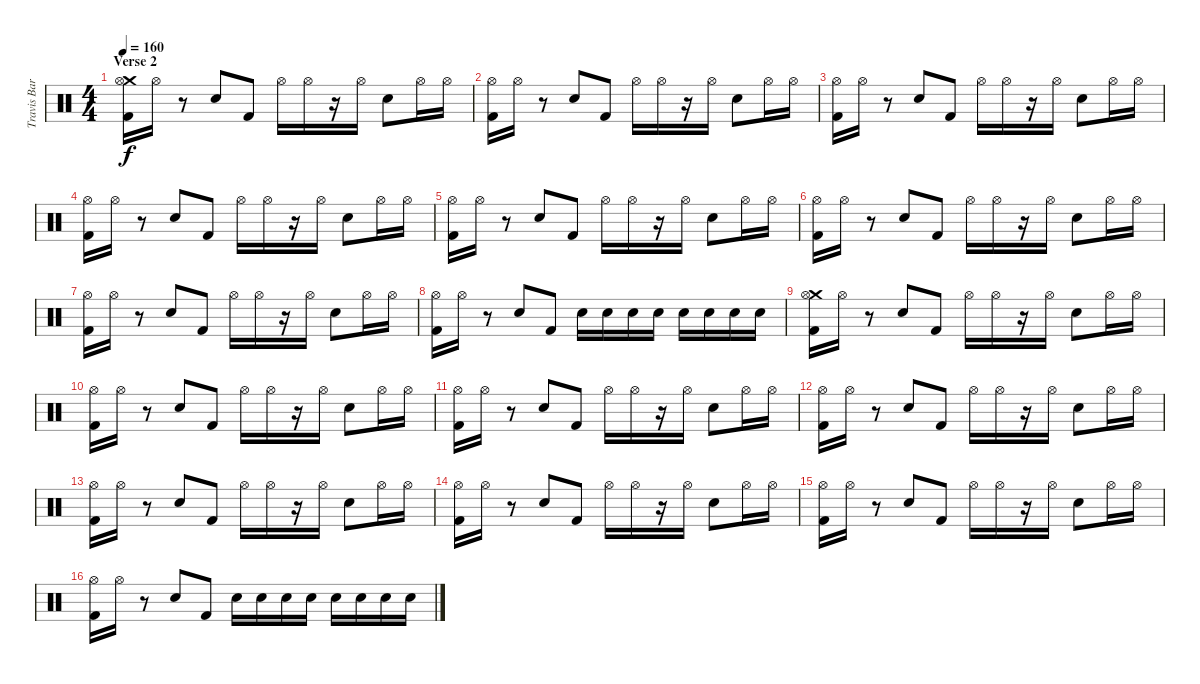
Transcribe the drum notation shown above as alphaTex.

\track ("Travis Barker Drums" "Travis Bar") {instrument percussion}
\staff {score}
\articulation defaults
\ts (4 4)
\section ("" "Verse 2")
\tempo 160
\clef neutral
\ks c
("Crash medium (hit)" "Hi-Hat (open)" "Kick (hit) 2").16{dy f} "Hi-Hat (open)".16 r.8 "Electric Snare (hit)".8 "Kick (hit) 2".8 "Hi-Hat (open)".16 "Hi-Hat (open)".16 r.16 "Hi-Hat (open)".16 "Electric Snare (hit)".8 "Hi-Hat (open)".16 "Hi-Hat (open)".16 |
("Hi-Hat (open)" "Kick (hit) 2").16 "Hi-Hat (open)".16 r.8 "Electric Snare (hit)".8 "Kick (hit) 2".8 "Hi-Hat (open)".16 "Hi-Hat (open)".16 r.16 "Hi-Hat (open)".16 "Electric Snare (hit)".8 "Hi-Hat (open)".16 "Hi-Hat (open)".16 |
("Hi-Hat (open)" "Kick (hit) 2").16 "Hi-Hat (open)".16 r.8 "Electric Snare (hit)".8 "Kick (hit) 2".8 "Hi-Hat (open)".16 "Hi-Hat (open)".16 r.16 "Hi-Hat (open)".16 "Electric Snare (hit)".8 "Hi-Hat (open)".16 "Hi-Hat (open)".16 |
("Hi-Hat (open)" "Kick (hit) 2").16 "Hi-Hat (open)".16 r.8 "Electric Snare (hit)".8 "Kick (hit) 2".8 "Hi-Hat (open)".16 "Hi-Hat (open)".16 r.16 "Hi-Hat (open)".16 "Electric Snare (hit)".8 "Hi-Hat (open)".16 "Hi-Hat (open)".16 |
("Hi-Hat (open)" "Kick (hit) 2").16 "Hi-Hat (open)".16 r.8 "Electric Snare (hit)".8 "Kick (hit) 2".8 "Hi-Hat (open)".16 "Hi-Hat (open)".16 r.16 "Hi-Hat (open)".16 "Electric Snare (hit)".8 "Hi-Hat (open)".16 "Hi-Hat (open)".16 |
("Hi-Hat (open)" "Kick (hit) 2").16 "Hi-Hat (open)".16 r.8 "Electric Snare (hit)".8 "Kick (hit) 2".8 "Hi-Hat (open)".16 "Hi-Hat (open)".16 r.16 "Hi-Hat (open)".16 "Electric Snare (hit)".8 "Hi-Hat (open)".16 "Hi-Hat (open)".16 |
("Hi-Hat (open)" "Kick (hit) 2").16 "Hi-Hat (open)".16 r.8 "Electric Snare (hit)".8 "Kick (hit) 2".8 "Hi-Hat (open)".16 "Hi-Hat (open)".16 r.16 "Hi-Hat (open)".16 "Electric Snare (hit)".8 "Hi-Hat (open)".16 "Hi-Hat (open)".16 |
("Hi-Hat (open)" "Kick (hit) 2").16 "Hi-Hat (open)".16 r.8 "Electric Snare (hit)".8 "Kick (hit) 2".8 "Electric Snare (hit)".16 "Electric Snare (hit)".16 "Electric Snare (hit)".16 "Electric Snare (hit)".16 "Electric Snare (hit)".16 "Electric Snare (hit)".16 "Electric Snare (hit)".16 "Electric Snare (hit)".16 |
("Crash medium (hit)" "Hi-Hat (open)" "Kick (hit) 2").16 "Hi-Hat (open)".16 r.8 "Electric Snare (hit)".8 "Kick (hit) 2".8 "Hi-Hat (open)".16 "Hi-Hat (open)".16 r.16 "Hi-Hat (open)".16 "Electric Snare (hit)".8 "Hi-Hat (open)".16 "Hi-Hat (open)".16 |
("Hi-Hat (open)" "Kick (hit) 2").16 "Hi-Hat (open)".16 r.8 "Electric Snare (hit)".8 "Kick (hit) 2".8 "Hi-Hat (open)".16 "Hi-Hat (open)".16 r.16 "Hi-Hat (open)".16 "Electric Snare (hit)".8 "Hi-Hat (open)".16 "Hi-Hat (open)".16 |
("Hi-Hat (open)" "Kick (hit) 2").16 "Hi-Hat (open)".16 r.8 "Electric Snare (hit)".8 "Kick (hit) 2".8 "Hi-Hat (open)".16 "Hi-Hat (open)".16 r.16 "Hi-Hat (open)".16 "Electric Snare (hit)".8 "Hi-Hat (open)".16 "Hi-Hat (open)".16 |
("Hi-Hat (open)" "Kick (hit) 2").16 "Hi-Hat (open)".16 r.8 "Electric Snare (hit)".8 "Kick (hit) 2".8 "Hi-Hat (open)".16 "Hi-Hat (open)".16 r.16 "Hi-Hat (open)".16 "Electric Snare (hit)".8 "Hi-Hat (open)".16 "Hi-Hat (open)".16 |
("Hi-Hat (open)" "Kick (hit) 2").16 "Hi-Hat (open)".16 r.8 "Electric Snare (hit)".8 "Kick (hit) 2".8 "Hi-Hat (open)".16 "Hi-Hat (open)".16 r.16 "Hi-Hat (open)".16 "Electric Snare (hit)".8 "Hi-Hat (open)".16 "Hi-Hat (open)".16 |
("Hi-Hat (open)" "Kick (hit) 2").16 "Hi-Hat (open)".16 r.8 "Electric Snare (hit)".8 "Kick (hit) 2".8 "Hi-Hat (open)".16 "Hi-Hat (open)".16 r.16 "Hi-Hat (open)".16 "Electric Snare (hit)".8 "Hi-Hat (open)".16 "Hi-Hat (open)".16 |
("Hi-Hat (open)" "Kick (hit) 2").16 "Hi-Hat (open)".16 r.8 "Electric Snare (hit)".8 "Kick (hit) 2".8 "Hi-Hat (open)".16 "Hi-Hat (open)".16 r.16 "Hi-Hat (open)".16 "Electric Snare (hit)".8 "Hi-Hat (open)".16 "Hi-Hat (open)".16 |
("Hi-Hat (open)" "Kick (hit) 2").16 "Hi-Hat (open)".16 r.8 "Electric Snare (hit)".8 "Kick (hit) 2".8 "Electric Snare (hit)".16 "Electric Snare (hit)".16 "Electric Snare (hit)".16 "Electric Snare (hit)".16 "Electric Snare (hit)".16 "Electric Snare (hit)".16 "Electric Snare (hit)".16 "Electric Snare (hit)".16
